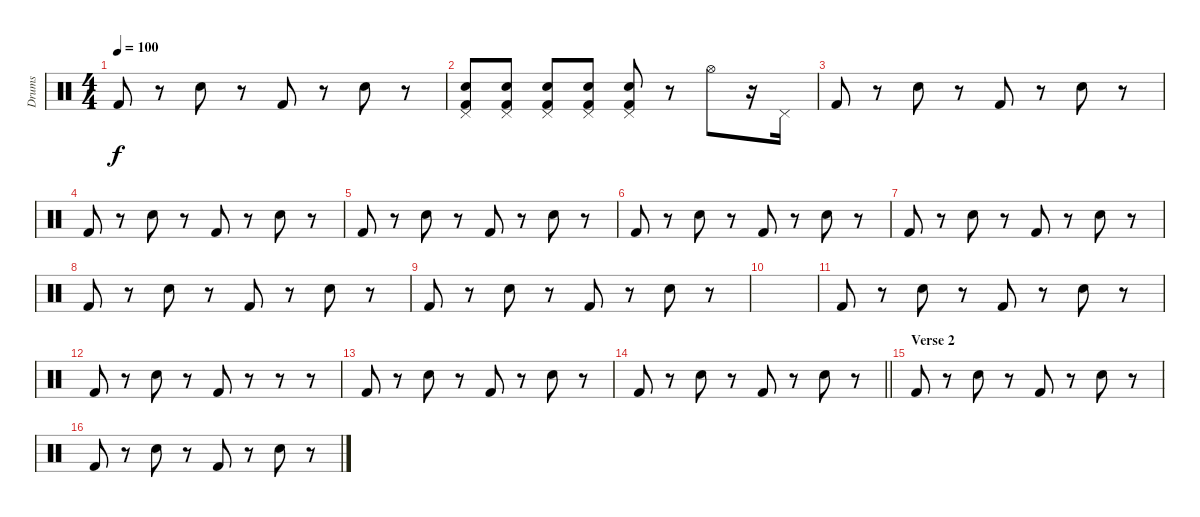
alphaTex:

\track ("Drums" "Drums") {instrument percussion}
\staff {score}
\articulation defaults
\ts (4 4)
\tempo 100
\clef neutral
\ks c "Kick (hit) 2".8{dy f}
r.8 "Snare (hit) 2".8 r.8 "Kick (hit) 2".8 r.8 "Snare (hit) 2".8 r.8 |
("Pedal Hi-Hat (hit)" "Snare (hit) 2" "Kick (hit) 2").8 ("Pedal Hi-Hat (hit)" "Snare (hit) 2" "Kick (hit) 2").8 ("Pedal Hi-Hat (hit)" "Snare (hit) 2" "Kick (hit) 2").8 ("Pedal Hi-Hat (hit)" "Snare (hit) 2" "Kick (hit) 2").8 ("Pedal Hi-Hat (hit)" "Snare (hit) 2" "Kick (hit) 2").8 r.8 "Hi-Hat (open)".8 r.16 "Pedal Hi-Hat (hit)".16 |
"Kick (hit) 2".8 r.8 "Snare (hit) 2".8 r.8 "Kick (hit) 2".8 r.8 "Snare (hit) 2".8 r.8 |
"Kick (hit) 2".8 r.8 "Snare (hit) 2".8 r.8 "Kick (hit) 2".8 r.8 "Snare (hit) 2".8 r.8 |
"Kick (hit) 2".8 r.8 "Snare (hit) 2".8 r.8 "Kick (hit) 2".8 r.8 "Snare (hit) 2".8 r.8 |
"Kick (hit) 2".8 r.8 "Snare (hit) 2".8 r.8 "Kick (hit) 2".8 r.8 "Snare (hit) 2".8 r.8 |
"Kick (hit) 2".8 r.8 "Snare (hit) 2".8 r.8 "Kick (hit) 2".8 r.8 "Snare (hit) 2".8 r.8 |
"Kick (hit) 2".8 r.8 "Snare (hit) 2".8 r.8 "Kick (hit) 2".8 r.8 "Snare (hit) 2".8 r.8 |
"Kick (hit) 2".8 r.8 "Snare (hit) 2".8 r.8 "Kick (hit) 2".8 r.8 "Snare (hit) 2".8 r.8 |
|
"Kick (hit) 2".8 r.8 "Snare (hit) 2".8 r.8 "Kick (hit) 2".8 r.8 "Snare (hit) 2".8 r.8 |
"Kick (hit) 2".8 r.8 "Snare (hit) 2".8 r.8 "Kick (hit) 2".8 r.8 r.8 r.8 |
"Kick (hit) 2".8 r.8 "Snare (hit) 2".8 r.8 "Kick (hit) 2".8 r.8 "Snare (hit) 2".8 r.8 |
\barLineRight lightlight "Kick (hit) 2".8
r.8 "Snare (hit) 2".8 r.8 "Kick (hit) 2".8 r.8 "Snare (hit) 2".8 r.8 |
\section ("" "Verse 2")
"Kick (hit) 2".8 r.8 "Snare (hit) 2".8 r.8 "Kick (hit) 2".8 r.8 "Snare (hit) 2".8 r.8 |
"Kick (hit) 2".8 r.8 "Snare (hit) 2".8 r.8 "Kick (hit) 2".8 r.8 "Snare (hit) 2".8 r.8
